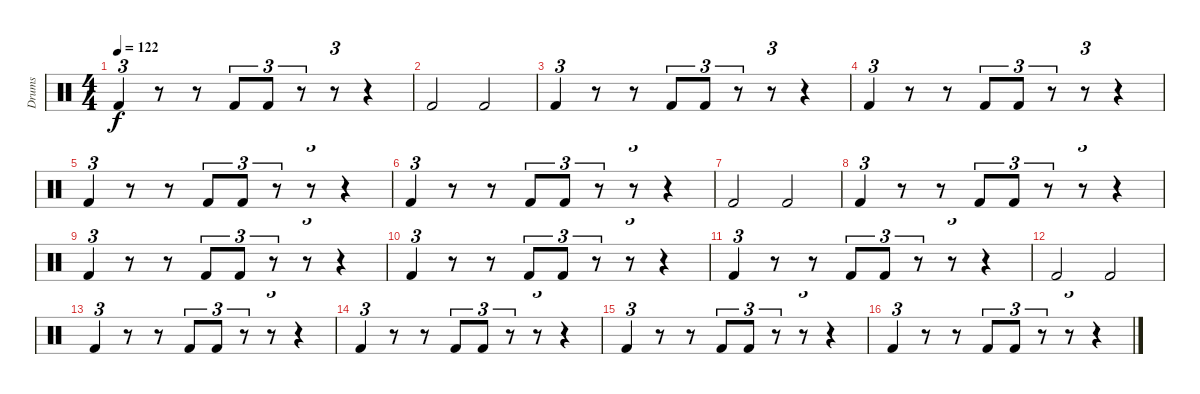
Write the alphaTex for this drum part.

\track ("Drums" "Drums") {instrument percussion}
\staff {score}
\articulation defaults
\ts (4 4)
\tempo 122
\clef neutral
\ks c "Kick (hit) 2".4{tu (3 2) dy f}
r.8 r.8 "Kick (hit) 2".8{tu (3 2)} "Kick (hit) 2".8{tu (3 2)} r.8{tu (3 2)} r.8{tu (3 2)} r.4 |
"Kick (hit) 2".2 "Kick (hit) 2".2 |
"Kick (hit) 2".4{tu (3 2)} r.8 r.8 "Kick (hit) 2".8{tu (3 2)} "Kick (hit) 2".8{tu (3 2)} r.8{tu (3 2)} r.8{tu (3 2)} r.4 |
"Kick (hit) 2".4{tu (3 2)} r.8 r.8 "Kick (hit) 2".8{tu (3 2)} "Kick (hit) 2".8{tu (3 2)} r.8{tu (3 2)} r.8{tu (3 2)} r.4 |
"Kick (hit) 2".4{tu (3 2)} r.8 r.8 "Kick (hit) 2".8{tu (3 2)} "Kick (hit) 2".8{tu (3 2)} r.8{tu (3 2)} r.8{tu (3 2)} r.4 |
"Kick (hit) 2".4{tu (3 2)} r.8 r.8 "Kick (hit) 2".8{tu (3 2)} "Kick (hit) 2".8{tu (3 2)} r.8{tu (3 2)} r.8{tu (3 2)} r.4 |
"Kick (hit) 2".2 "Kick (hit) 2".2 |
"Kick (hit) 2".4{tu (3 2)} r.8 r.8 "Kick (hit) 2".8{tu (3 2)} "Kick (hit) 2".8{tu (3 2)} r.8{tu (3 2)} r.8{tu (3 2)} r.4 |
"Kick (hit) 2".4{tu (3 2)} r.8 r.8 "Kick (hit) 2".8{tu (3 2)} "Kick (hit) 2".8{tu (3 2)} r.8{tu (3 2)} r.8{tu (3 2)} r.4 |
"Kick (hit) 2".4{tu (3 2)} r.8 r.8 "Kick (hit) 2".8{tu (3 2)} "Kick (hit) 2".8{tu (3 2)} r.8{tu (3 2)} r.8{tu (3 2)} r.4 |
"Kick (hit) 2".4{tu (3 2)} r.8 r.8 "Kick (hit) 2".8{tu (3 2)} "Kick (hit) 2".8{tu (3 2)} r.8{tu (3 2)} r.8{tu (3 2)} r.4 |
"Kick (hit) 2".2 "Kick (hit) 2".2 |
"Kick (hit) 2".4{tu (3 2)} r.8 r.8 "Kick (hit) 2".8{tu (3 2)} "Kick (hit) 2".8{tu (3 2)} r.8{tu (3 2)} r.8{tu (3 2)} r.4 |
"Kick (hit) 2".4{tu (3 2)} r.8 r.8 "Kick (hit) 2".8{tu (3 2)} "Kick (hit) 2".8{tu (3 2)} r.8{tu (3 2)} r.8{tu (3 2)} r.4 |
"Kick (hit) 2".4{tu (3 2)} r.8 r.8 "Kick (hit) 2".8{tu (3 2)} "Kick (hit) 2".8{tu (3 2)} r.8{tu (3 2)} r.8{tu (3 2)} r.4 |
"Kick (hit) 2".4{tu (3 2)} r.8 r.8 "Kick (hit) 2".8{tu (3 2)} "Kick (hit) 2".8{tu (3 2)} r.8{tu (3 2)} r.8{tu (3 2)} r.4
